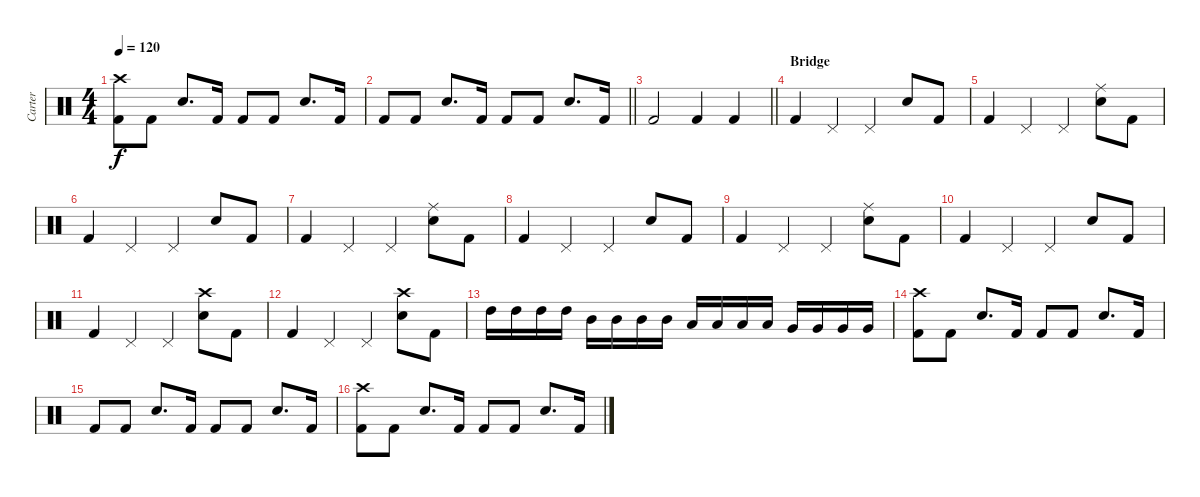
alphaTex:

\track ("Carter" "Carter") {instrument percussion}
\staff {score}
\articulation defaults
\ts (4 4)
\tempo 120
\clef neutral
\ks c
("Kick (hit) 2" "Crash high (hit)").8{dy f} "Kick (hit) 2".8 "Electric Snare (hit)".8{d} "Kick (hit) 2".16 "Kick (hit) 2".8 "Kick (hit) 2".8 "Electric Snare (hit)".8{d} "Kick (hit) 2".16 |
\barLineRight lightlight "Kick (hit) 2".8 "Kick (hit) 2".8 "Electric Snare (hit)".8{d} "Kick (hit) 2".16 "Kick (hit) 2".8 "Kick (hit) 2".8 "Electric Snare (hit)".8{d} "Kick (hit) 2".16
|
\barLineRight lightlight "Kick (hit) 2".2 "Kick (hit) 2".4 "Kick (hit) 2".4
|
\section ("" "Bridge")
"Kick (hit) 2".4 "Pedal Hi-Hat (hit)".4 "Pedal Hi-Hat (hit)".4 "Electric Snare (hit)".8 "Kick (hit) 2".8 |
"Kick (hit) 2".4 "Pedal Hi-Hat (hit)".4 "Pedal Hi-Hat (hit)".4 ("Electric Snare (hit)" "Ride (middle)").8 "Kick (hit) 2".8 |
"Kick (hit) 2".4 "Pedal Hi-Hat (hit)".4 "Pedal Hi-Hat (hit)".4 "Electric Snare (hit)".8 "Kick (hit) 2".8 |
"Kick (hit) 2".4 "Pedal Hi-Hat (hit)".4 "Pedal Hi-Hat (hit)".4 ("Electric Snare (hit)" "Ride (middle)").8 "Kick (hit) 2".8 |
"Kick (hit) 2".4 "Pedal Hi-Hat (hit)".4 "Pedal Hi-Hat (hit)".4 "Electric Snare (hit)".8 "Kick (hit) 2".8 |
"Kick (hit) 2".4 "Pedal Hi-Hat (hit)".4 "Pedal Hi-Hat (hit)".4 ("Electric Snare (hit)" "Ride (middle)").8 "Kick (hit) 2".8 |
"Kick (hit) 2".4 "Pedal Hi-Hat (hit)".4 "Pedal Hi-Hat (hit)".4 "Electric Snare (hit)".8 "Kick (hit) 2".8 |
"Kick (hit) 2".4 "Pedal Hi-Hat (hit)".4 "Pedal Hi-Hat (hit)".4 ("Electric Snare (hit)" "Crash high (hit)").8 "Kick (hit) 2".8 |
"Kick (hit) 2".4 "Pedal Hi-Hat (hit)".4 "Pedal Hi-Hat (hit)".4 ("Electric Snare (hit)" "Crash high (hit)").8 "Kick (hit) 2".8 |
"High Tom (hit)".16 "High Tom (hit)".16 "High Tom (hit)".16 "High Tom (hit)".16 "Mid Tom (hit)".16 "Mid Tom (hit)".16 "Mid Tom (hit)".16 "Mid Tom (hit)".16 "Low Tom (hit)".16 "Low Tom (hit)".16 "Low Tom (hit)".16 "Low Tom (hit)".16 "Very Low Tom (hit)".16 "Very Low Tom (hit)".16 "Very Low Tom (hit)".16 "Very Low Tom (hit)".16 |
("Kick (hit) 2" "Crash high (hit)").8 "Kick (hit) 2".8 "Electric Snare (hit)".8{d} "Kick (hit) 2".16 "Kick (hit) 2".8 "Kick (hit) 2".8 "Electric Snare (hit)".8{d} "Kick (hit) 2".16 |
"Kick (hit) 2".8 "Kick (hit) 2".8 "Electric Snare (hit)".8{d} "Kick (hit) 2".16 "Kick (hit) 2".8 "Kick (hit) 2".8 "Electric Snare (hit)".8{d} "Kick (hit) 2".16 |
("Kick (hit) 2" "Crash high (hit)").8 "Kick (hit) 2".8 "Electric Snare (hit)".8{d} "Kick (hit) 2".16 "Kick (hit) 2".8 "Kick (hit) 2".8 "Electric Snare (hit)".8{d} "Kick (hit) 2".16
